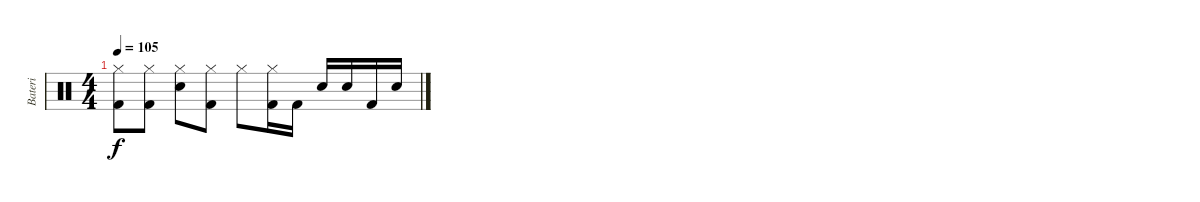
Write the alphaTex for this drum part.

\track ("Bateri" "Bateri") {instrument percussion}
\staff {score}
\articulation defaults
\ts (4 4)
\tempo 105
\clef neutral
\ks c
("Hi-Hat (closed)" "Kick (hit) 2").8{dy f} ("Hi-Hat (closed)" "Kick (hit) 2").8 ("Hi-Hat (closed)" "Electric Snare (hit)").8 ("Hi-Hat (closed)" "Kick (hit) 2").8 "Hi-Hat (closed)".8 ("Hi-Hat (closed)" "Kick (hit) 2").16 "Kick (hit) 2".16 "Electric Snare (hit)".16 "Electric Snare (hit)".16 "Kick (hit) 2".16 "Electric Snare (hit)".16
